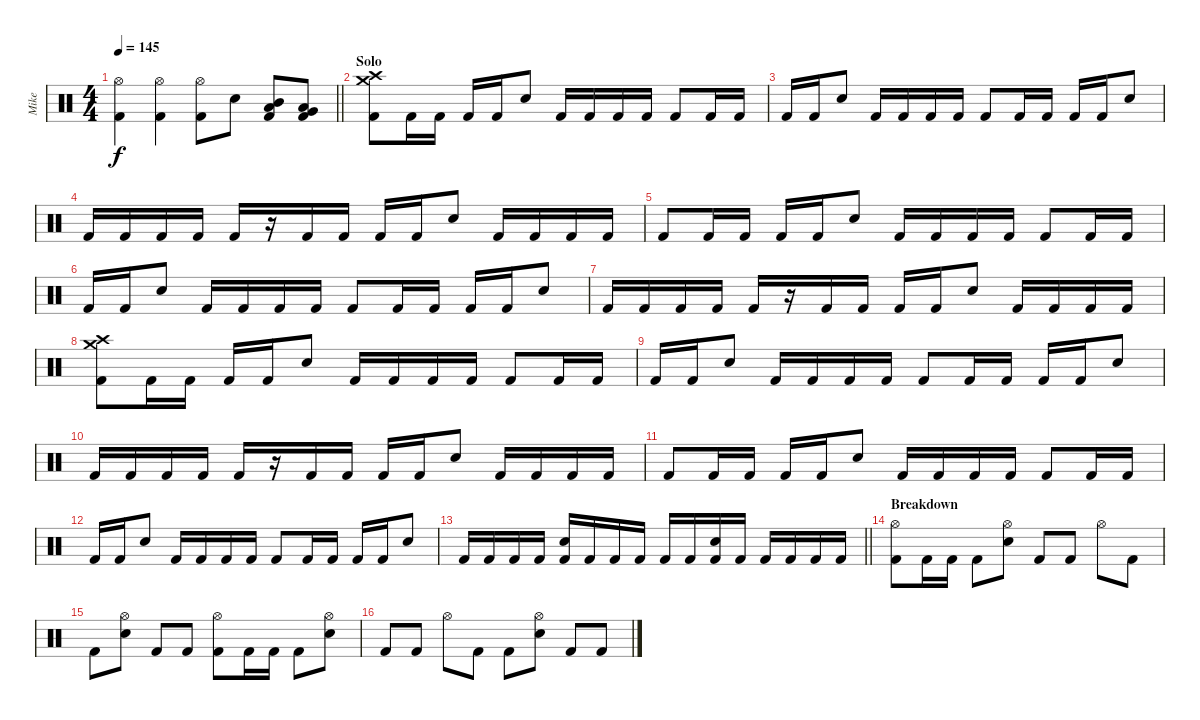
\track ("Mike" "Mike") {instrument percussion}
\staff {score}
\articulation defaults
\ts (4 4)
\tempo 145
\clef neutral
\barLineRight lightlight
\ks c
("Hi-Hat (open)" "Kick (hit) 2").4{dy f} ("Hi-Hat (open)" "Kick (hit) 2").4 ("Hi-Hat (open)" "Kick (hit) 2").8 "Snare (hit) 2".8 ("Mid Tom (hit)" "Low Tom (hit)" "Kick (hit) 2").8 ("Low Tom (hit)" "Very Low Tom (hit)" "Kick (hit) 2").8 |
\section ("" "Solo")
("Crash medium (hit)" "Crash high (hit)" "Kick (hit) 2").8 "Kick (hit) 2".16 "Kick (hit) 2".16 "Kick (hit) 2".16 "Kick (hit) 2".16 "Snare (hit) 2".8 "Kick (hit) 2".16 "Kick (hit) 2".16 "Kick (hit) 2".16 "Kick (hit) 2".16 "Kick (hit) 2".8 "Kick (hit) 2".16 "Kick (hit) 2".16 |
"Kick (hit) 2".16 "Kick (hit) 2".16 "Snare (hit) 2".8 "Kick (hit) 2".16 "Kick (hit) 2".16 "Kick (hit) 2".16 "Kick (hit) 2".16 "Kick (hit) 2".8 "Kick (hit) 2".16 "Kick (hit) 2".16 "Kick (hit) 2".16 "Kick (hit) 2".16 "Snare (hit) 2".8 |
"Kick (hit) 2".16 "Kick (hit) 2".16 "Kick (hit) 2".16 "Kick (hit) 2".16 "Kick (hit) 2".16 r.16 "Kick (hit) 2".16 "Kick (hit) 2".16 "Kick (hit) 2".16 "Kick (hit) 2".16 "Snare (hit) 2".8 "Kick (hit) 2".16 "Kick (hit) 2".16 "Kick (hit) 2".16 "Kick (hit) 2".16 |
"Kick (hit) 2".8 "Kick (hit) 2".16 "Kick (hit) 2".16 "Kick (hit) 2".16 "Kick (hit) 2".16 "Snare (hit) 2".8 "Kick (hit) 2".16 "Kick (hit) 2".16 "Kick (hit) 2".16 "Kick (hit) 2".16 "Kick (hit) 2".8 "Kick (hit) 2".16 "Kick (hit) 2".16 |
"Kick (hit) 2".16 "Kick (hit) 2".16 "Snare (hit) 2".8 "Kick (hit) 2".16 "Kick (hit) 2".16 "Kick (hit) 2".16 "Kick (hit) 2".16 "Kick (hit) 2".8 "Kick (hit) 2".16 "Kick (hit) 2".16 "Kick (hit) 2".16 "Kick (hit) 2".16 "Snare (hit) 2".8 |
"Kick (hit) 2".16 "Kick (hit) 2".16 "Kick (hit) 2".16 "Kick (hit) 2".16 "Kick (hit) 2".16 r.16 "Kick (hit) 2".16 "Kick (hit) 2".16 "Kick (hit) 2".16 "Kick (hit) 2".16 "Snare (hit) 2".8 "Kick (hit) 2".16 "Kick (hit) 2".16 "Kick (hit) 2".16 "Kick (hit) 2".16 |
("Crash medium (hit)" "Crash high (hit)" "Kick (hit) 2").8 "Kick (hit) 2".16 "Kick (hit) 2".16 "Kick (hit) 2".16 "Kick (hit) 2".16 "Snare (hit) 2".8 "Kick (hit) 2".16 "Kick (hit) 2".16 "Kick (hit) 2".16 "Kick (hit) 2".16 "Kick (hit) 2".8 "Kick (hit) 2".16 "Kick (hit) 2".16 |
"Kick (hit) 2".16 "Kick (hit) 2".16 "Snare (hit) 2".8 "Kick (hit) 2".16 "Kick (hit) 2".16 "Kick (hit) 2".16 "Kick (hit) 2".16 "Kick (hit) 2".8 "Kick (hit) 2".16 "Kick (hit) 2".16 "Kick (hit) 2".16 "Kick (hit) 2".16 "Snare (hit) 2".8 |
"Kick (hit) 2".16 "Kick (hit) 2".16 "Kick (hit) 2".16 "Kick (hit) 2".16 "Kick (hit) 2".16 r.16 "Kick (hit) 2".16 "Kick (hit) 2".16 "Kick (hit) 2".16 "Kick (hit) 2".16 "Snare (hit) 2".8 "Kick (hit) 2".16 "Kick (hit) 2".16 "Kick (hit) 2".16 "Kick (hit) 2".16 |
"Kick (hit) 2".8 "Kick (hit) 2".16 "Kick (hit) 2".16 "Kick (hit) 2".16 "Kick (hit) 2".16 "Snare (hit) 2".8 "Kick (hit) 2".16 "Kick (hit) 2".16 "Kick (hit) 2".16 "Kick (hit) 2".16 "Kick (hit) 2".8 "Kick (hit) 2".16 "Kick (hit) 2".16 |
"Kick (hit) 2".16 "Kick (hit) 2".16 "Snare (hit) 2".8 "Kick (hit) 2".16 "Kick (hit) 2".16 "Kick (hit) 2".16 "Kick (hit) 2".16 "Kick (hit) 2".8 "Kick (hit) 2".16 "Kick (hit) 2".16 "Kick (hit) 2".16 "Kick (hit) 2".16 "Snare (hit) 2".8 |
\barLineRight lightlight "Kick (hit) 2".16 "Kick (hit) 2".16 "Kick (hit) 2".16 "Kick (hit) 2".16
("Snare (hit) 2" "Kick (hit) 2").16 "Kick (hit) 2".16 "Kick (hit) 2".16 "Kick (hit) 2".16 "Kick (hit) 2".16 "Kick (hit) 2".16 ("Snare (hit) 2" "Kick (hit) 2").16 "Kick (hit) 2".16 "Kick (hit) 2".16 "Kick (hit) 2".16 "Kick (hit) 2".16 "Kick (hit) 2".16 |
\section ("" "Breakdown")
("Hi-Hat (open)" "Kick (hit) 2").8 "Kick (hit) 2".16 "Kick (hit) 2".16 "Kick (hit) 2".8 ("Hi-Hat (open)" "Snare (hit) 2").8 "Kick (hit) 2".8 "Kick (hit) 2".8 "Hi-Hat (open)".8 "Kick (hit) 2".8 |
"Kick (hit) 2".8 ("Hi-Hat (open)" "Snare (hit) 2").8 "Kick (hit) 2".8 "Kick (hit) 2".8 ("Hi-Hat (open)" "Kick (hit) 2").8 "Kick (hit) 2".16 "Kick (hit) 2".16 "Kick (hit) 2".8 ("Hi-Hat (open)" "Snare (hit) 2").8 |
"Kick (hit) 2".8 "Kick (hit) 2".8 "Hi-Hat (open)".8 "Kick (hit) 2".8 "Kick (hit) 2".8 ("Hi-Hat (open)" "Snare (hit) 2").8 "Kick (hit) 2".8 "Kick (hit) 2".8
